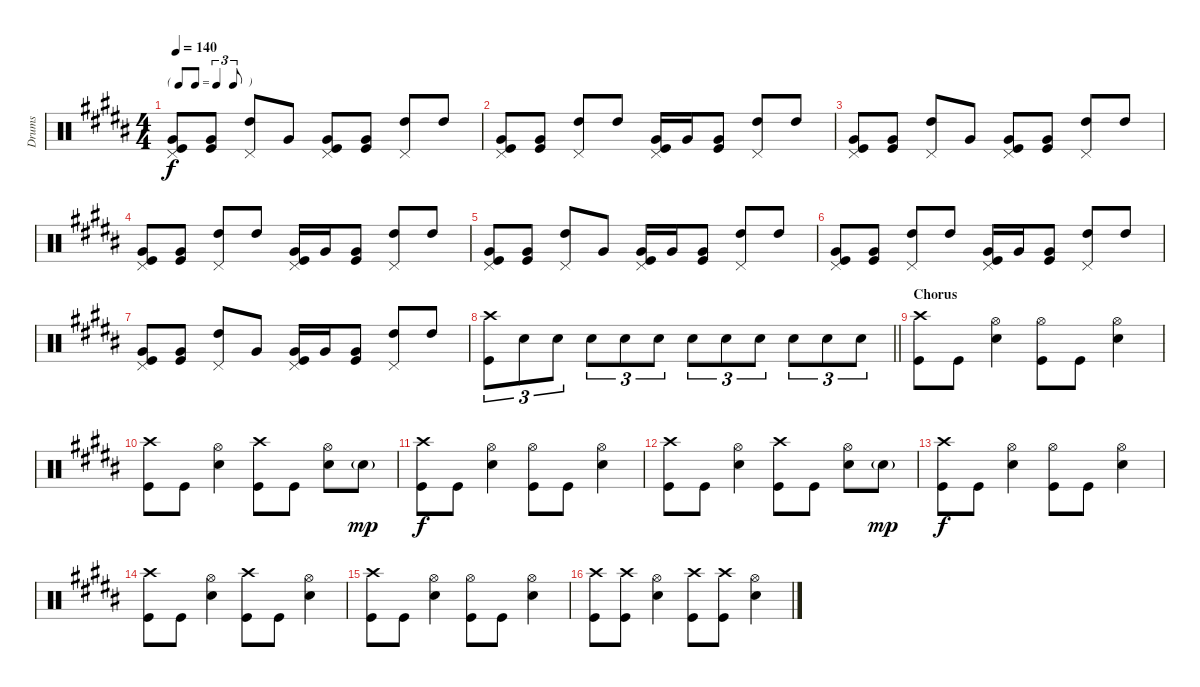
\track ("Drums" "Drums") {instrument percussion}
\staff {score}
\articulation defaults
\ts (4 4)
\tf triplet8th
\tempo 140
\clef neutral
\ks b
("Kick (hit)" "Very Low Tom (hit)" "Pedal Hi-Hat (hit)").8{dy f} ("Kick (hit)" "Very Low Tom (hit)").8 ("High Tom (hit)" "Pedal Hi-Hat (hit)").8 "Very Low Tom (hit)".8 ("Very Low Tom (hit)" "Kick (hit)" "Pedal Hi-Hat (hit)").8 ("Very Low Tom (hit)" "Kick (hit)").8 ("High Tom (hit)" "Pedal Hi-Hat (hit)").8 "High Tom (hit)".8 |
("Kick (hit)" "Very Low Tom (hit)" "Pedal Hi-Hat (hit)").8 ("Kick (hit)" "Very Low Tom (hit)").8 ("High Tom (hit)" "Pedal Hi-Hat (hit)").8 "High Tom (hit)".8 ("Very Low Tom (hit)" "Kick (hit)" "Pedal Hi-Hat (hit)").16 "Very Low Tom (hit)".16 ("Very Low Tom (hit)" "Kick (hit)").8 ("High Tom (hit)" "Pedal Hi-Hat (hit)").8 "High Tom (hit)".8 |
("Kick (hit)" "Very Low Tom (hit)" "Pedal Hi-Hat (hit)").8 ("Kick (hit)" "Very Low Tom (hit)").8 ("High Tom (hit)" "Pedal Hi-Hat (hit)").8 "Very Low Tom (hit)".8 ("Very Low Tom (hit)" "Kick (hit)" "Pedal Hi-Hat (hit)").8 ("Very Low Tom (hit)" "Kick (hit)").8 ("High Tom (hit)" "Pedal Hi-Hat (hit)").8 "High Tom (hit)".8 |
("Kick (hit)" "Very Low Tom (hit)" "Pedal Hi-Hat (hit)").8 ("Kick (hit)" "Very Low Tom (hit)").8 ("High Tom (hit)" "Pedal Hi-Hat (hit)").8 "High Tom (hit)".8 ("Very Low Tom (hit)" "Kick (hit)" "Pedal Hi-Hat (hit)").16 "Very Low Tom (hit)".16 ("Very Low Tom (hit)" "Kick (hit)").8 ("High Tom (hit)" "Pedal Hi-Hat (hit)").8 "High Tom (hit)".8 |
("Kick (hit)" "Very Low Tom (hit)" "Pedal Hi-Hat (hit)").8 ("Kick (hit)" "Very Low Tom (hit)").8 ("High Tom (hit)" "Pedal Hi-Hat (hit)").8 "Very Low Tom (hit)".8 ("Very Low Tom (hit)" "Kick (hit)" "Pedal Hi-Hat (hit)").16 "Very Low Tom (hit)".16 ("Very Low Tom (hit)" "Kick (hit)").8 ("High Tom (hit)" "Pedal Hi-Hat (hit)").8 "High Tom (hit)".8 |
("Kick (hit)" "Very Low Tom (hit)" "Pedal Hi-Hat (hit)").8 ("Kick (hit)" "Very Low Tom (hit)").8 ("High Tom (hit)" "Pedal Hi-Hat (hit)").8 "High Tom (hit)".8 ("Very Low Tom (hit)" "Kick (hit)" "Pedal Hi-Hat (hit)").16 "Very Low Tom (hit)".16 ("Very Low Tom (hit)" "Kick (hit)").8 ("High Tom (hit)" "Pedal Hi-Hat (hit)").8 "High Tom (hit)".8 |
("Kick (hit)" "Very Low Tom (hit)" "Pedal Hi-Hat (hit)").8 ("Kick (hit)" "Very Low Tom (hit)").8 ("High Tom (hit)" "Pedal Hi-Hat (hit)").8 "Very Low Tom (hit)".8 ("Very Low Tom (hit)" "Kick (hit)" "Pedal Hi-Hat (hit)").16 "Very Low Tom (hit)".16 ("Very Low Tom (hit)" "Kick (hit)").8 ("High Tom (hit)" "Pedal Hi-Hat (hit)").8 "High Tom (hit)".8 |
\barLineRight lightlight
("Kick (hit)" "Crash high (hit)").8{tu (3 2)} "Snare (hit) 2".8{tu (3 2)} "Snare (hit) 2".8{tu (3 2)} "Snare (hit) 2".8{tu (3 2)} "Snare (hit) 2".8{tu (3 2)} "Snare (hit) 2".8{tu (3 2)} "Snare (hit) 2".8{tu (3 2)} "Snare (hit) 2".8{tu (3 2)} "Snare (hit) 2".8{tu (3 2)} "Snare (hit) 2".8{tu (3 2)} "Snare (hit) 2".8{tu (3 2)} "Snare (hit) 2".8{tu (3 2)} |
\section ("" "Chorus")
("Kick (hit)" "Crash high (hit)").8 "Kick (hit)".8 ("Snare (hit) 2" "Hi-Hat (open)").4 ("Kick (hit)" "Hi-Hat (open)").8 "Kick (hit)".8 ("Snare (hit) 2" "Hi-Hat (open)").4 |
("Kick (hit)" "Crash high (hit)").8 "Kick (hit)".8 ("Snare (hit) 2" "Hi-Hat (open)").4 ("Kick (hit)" "Crash high (hit)").8 "Kick (hit)".8 ("Snare (hit) 2" "Hi-Hat (open)").8 "Snare (hit) 2"{g}.8{dy mp} |
("Kick (hit)" "Crash high (hit)").8{dy f} "Kick (hit)".8 ("Snare (hit) 2" "Hi-Hat (open)").4 ("Kick (hit)" "Hi-Hat (open)").8 "Kick (hit)".8 ("Snare (hit) 2" "Hi-Hat (open)").4 |
("Kick (hit)" "Crash high (hit)").8 "Kick (hit)".8 ("Snare (hit) 2" "Hi-Hat (open)").4 ("Kick (hit)" "Crash high (hit)").8 "Kick (hit)".8 ("Snare (hit) 2" "Hi-Hat (open)").8 "Snare (hit) 2"{g}.8{dy mp} |
("Kick (hit)" "Crash high (hit)").8{dy f} "Kick (hit)".8 ("Snare (hit) 2" "Hi-Hat (open)").4 ("Kick (hit)" "Hi-Hat (open)").8 "Kick (hit)".8 ("Snare (hit) 2" "Hi-Hat (open)").4 |
("Kick (hit)" "Crash high (hit)").8 "Kick (hit)".8 ("Snare (hit) 2" "Hi-Hat (open)").4 ("Kick (hit)" "Crash high (hit)").8 "Kick (hit)".8 ("Snare (hit) 2" "Hi-Hat (open)").4 |
("Kick (hit)" "Crash high (hit)").8 "Kick (hit)".8 ("Snare (hit) 2" "Hi-Hat (open)").4 ("Kick (hit)" "Hi-Hat (open)").8 "Kick (hit)".8 ("Snare (hit) 2" "Hi-Hat (open)").4 |
("Kick (hit)" "Crash high (hit)").8 ("Kick (hit)" "Crash high (hit)").8 ("Snare (hit) 2" "Hi-Hat (open)").4 ("Kick (hit)" "Crash high (hit)").8 ("Kick (hit)" "Crash high (hit)").8 ("Snare (hit) 2" "Hi-Hat (open)").4
